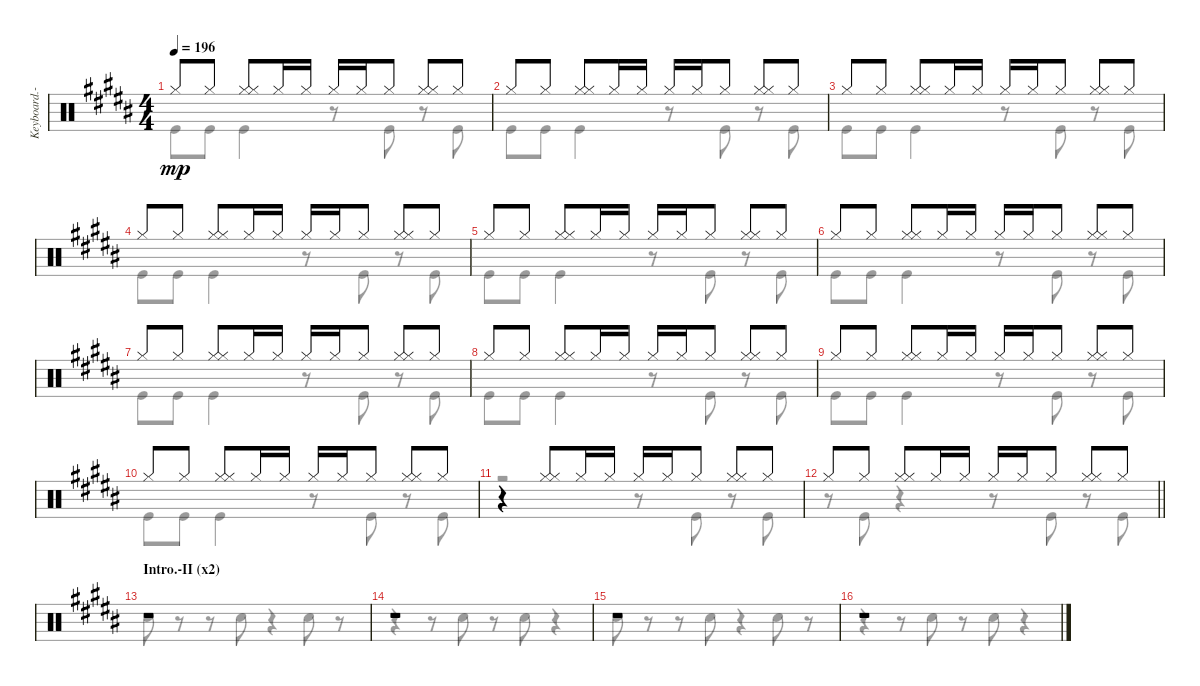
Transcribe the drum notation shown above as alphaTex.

\track ("Keyboard.-III" "Keyboard.-") {instrument percussion}
\staff {score}
\articulation defaults
\voice
\ts (4 4)
\tempo 196
\clef neutral
\ks b "Hi-Hat (closed)".8{dy mp} "Hi-Hat (closed)".8
("Hi-Hat (closed)" "Hi-Hat (closed)").8 "Hi-Hat (closed)".16 "Hi-Hat (closed)".16 "Hi-Hat (closed)".16 "Hi-Hat (closed)".16 "Hi-Hat (closed)".8 ("Hi-Hat (closed)" "Hi-Hat (closed)").8 "Hi-Hat (closed)".8 |
"Hi-Hat (closed)".8 "Hi-Hat (closed)".8 ("Hi-Hat (closed)" "Hi-Hat (closed)").8 "Hi-Hat (closed)".16 "Hi-Hat (closed)".16 "Hi-Hat (closed)".16 "Hi-Hat (closed)".16 "Hi-Hat (closed)".8 ("Hi-Hat (closed)" "Hi-Hat (closed)").8 "Hi-Hat (closed)".8 |
"Hi-Hat (closed)".8 "Hi-Hat (closed)".8 ("Hi-Hat (closed)" "Hi-Hat (closed)").8 "Hi-Hat (closed)".16 "Hi-Hat (closed)".16 "Hi-Hat (closed)".16 "Hi-Hat (closed)".16 "Hi-Hat (closed)".8 ("Hi-Hat (closed)" "Hi-Hat (closed)").8 "Hi-Hat (closed)".8 |
"Hi-Hat (closed)".8 "Hi-Hat (closed)".8 ("Hi-Hat (closed)" "Hi-Hat (closed)").8 "Hi-Hat (closed)".16 "Hi-Hat (closed)".16 "Hi-Hat (closed)".16 "Hi-Hat (closed)".16 "Hi-Hat (closed)".8 ("Hi-Hat (closed)" "Hi-Hat (closed)").8 "Hi-Hat (closed)".8 |
"Hi-Hat (closed)".8 "Hi-Hat (closed)".8 ("Hi-Hat (closed)" "Hi-Hat (closed)").8 "Hi-Hat (closed)".16 "Hi-Hat (closed)".16 "Hi-Hat (closed)".16 "Hi-Hat (closed)".16 "Hi-Hat (closed)".8 ("Hi-Hat (closed)" "Hi-Hat (closed)").8 "Hi-Hat (closed)".8 |
"Hi-Hat (closed)".8 "Hi-Hat (closed)".8 ("Hi-Hat (closed)" "Hi-Hat (closed)").8 "Hi-Hat (closed)".16 "Hi-Hat (closed)".16 "Hi-Hat (closed)".16 "Hi-Hat (closed)".16 "Hi-Hat (closed)".8 ("Hi-Hat (closed)" "Hi-Hat (closed)").8 "Hi-Hat (closed)".8 |
"Hi-Hat (closed)".8 "Hi-Hat (closed)".8 ("Hi-Hat (closed)" "Hi-Hat (closed)").8 "Hi-Hat (closed)".16 "Hi-Hat (closed)".16 "Hi-Hat (closed)".16 "Hi-Hat (closed)".16 "Hi-Hat (closed)".8 ("Hi-Hat (closed)" "Hi-Hat (closed)").8 "Hi-Hat (closed)".8 |
"Hi-Hat (closed)".8 "Hi-Hat (closed)".8 ("Hi-Hat (closed)" "Hi-Hat (closed)").8 "Hi-Hat (closed)".16 "Hi-Hat (closed)".16 "Hi-Hat (closed)".16 "Hi-Hat (closed)".16 "Hi-Hat (closed)".8 ("Hi-Hat (closed)" "Hi-Hat (closed)").8 "Hi-Hat (closed)".8 |
"Hi-Hat (closed)".8 "Hi-Hat (closed)".8 ("Hi-Hat (closed)" "Hi-Hat (closed)").8 "Hi-Hat (closed)".16 "Hi-Hat (closed)".16 "Hi-Hat (closed)".16 "Hi-Hat (closed)".16 "Hi-Hat (closed)".8 ("Hi-Hat (closed)" "Hi-Hat (closed)").8 "Hi-Hat (closed)".8 |
"Hi-Hat (closed)".8 "Hi-Hat (closed)".8 ("Hi-Hat (closed)" "Hi-Hat (closed)").8 "Hi-Hat (closed)".16 "Hi-Hat (closed)".16 "Hi-Hat (closed)".16 "Hi-Hat (closed)".16 "Hi-Hat (closed)".8 ("Hi-Hat (closed)" "Hi-Hat (closed)").8 "Hi-Hat (closed)".8 |
r.4 ("Hi-Hat (closed)" "Hi-Hat (closed)").8 "Hi-Hat (closed)".16 "Hi-Hat (closed)".16 "Hi-Hat (closed)".16 "Hi-Hat (closed)".16 "Hi-Hat (closed)".8 ("Hi-Hat (closed)" "Hi-Hat (closed)").8 "Hi-Hat (closed)".8 |
\barLineRight lightlight "Hi-Hat (closed)".8 "Hi-Hat (closed)".8
("Hi-Hat (closed)" "Hi-Hat (closed)").8 "Hi-Hat (closed)".16 "Hi-Hat (closed)".16 "Hi-Hat (closed)".16 "Hi-Hat (closed)".16 "Hi-Hat (closed)".8 ("Hi-Hat (closed)" "Hi-Hat (closed)").8 "Hi-Hat (closed)".8 |
\section ("" "Intro.-II (x2)")
r.1 |
r.1 |
r.1 |
r.1
\voice
\clef neutral
\ottava regular
\simile none
\ks b "Kick (hit)".8{dy mp} "Kick (hit)".8 "Kick (hit)".4
r.8 "Kick (hit)".8 r.8 "Kick (hit)".8 |
"Kick (hit)".8 "Kick (hit)".8 "Kick (hit)".4 r.8 "Kick (hit)".8 r.8 "Kick (hit)".8 |
"Kick (hit)".8 "Kick (hit)".8 "Kick (hit)".4 r.8 "Kick (hit)".8 r.8 "Kick (hit)".8 |
"Kick (hit)".8 "Kick (hit)".8 "Kick (hit)".4 r.8 "Kick (hit)".8 r.8 "Kick (hit)".8 |
"Kick (hit)".8 "Kick (hit)".8 "Kick (hit)".4 r.8 "Kick (hit)".8 r.8 "Kick (hit)".8 |
"Kick (hit)".8 "Kick (hit)".8 "Kick (hit)".4 r.8 "Kick (hit)".8 r.8 "Kick (hit)".8 |
"Kick (hit)".8 "Kick (hit)".8 "Kick (hit)".4 r.8 "Kick (hit)".8 r.8 "Kick (hit)".8 |
"Kick (hit)".8 "Kick (hit)".8 "Kick (hit)".4 r.8 "Kick (hit)".8 r.8 "Kick (hit)".8 |
"Kick (hit)".8 "Kick (hit)".8 "Kick (hit)".4 r.8 "Kick (hit)".8 r.8 "Kick (hit)".8 |
"Kick (hit)".8 "Kick (hit)".8 "Kick (hit)".4 r.8 "Kick (hit)".8 r.8 "Kick (hit)".8 |
r.2 r.8 "Kick (hit)".8 r.8 "Kick (hit)".8 |
\barLineRight lightlight
r.8 "Kick (hit)".8 r.4 r.8 "Kick (hit)".8 r.8 "Kick (hit)".8 |
"Hand Clap (hit)".8 r.8 r.8 "Hand Clap (hit)".8 r.4 "Hand Clap (hit)".8 r.8 |
r.4 r.8 "Hand Clap (hit)".8 r.8 "Hand Clap (hit)".8 r.4 |
"Hand Clap (hit)".8 r.8 r.8 "Hand Clap (hit)".8 r.4 "Hand Clap (hit)".8 r.8 |
r.4 r.8 "Hand Clap (hit)".8 r.8 "Hand Clap (hit)".8 r.4
